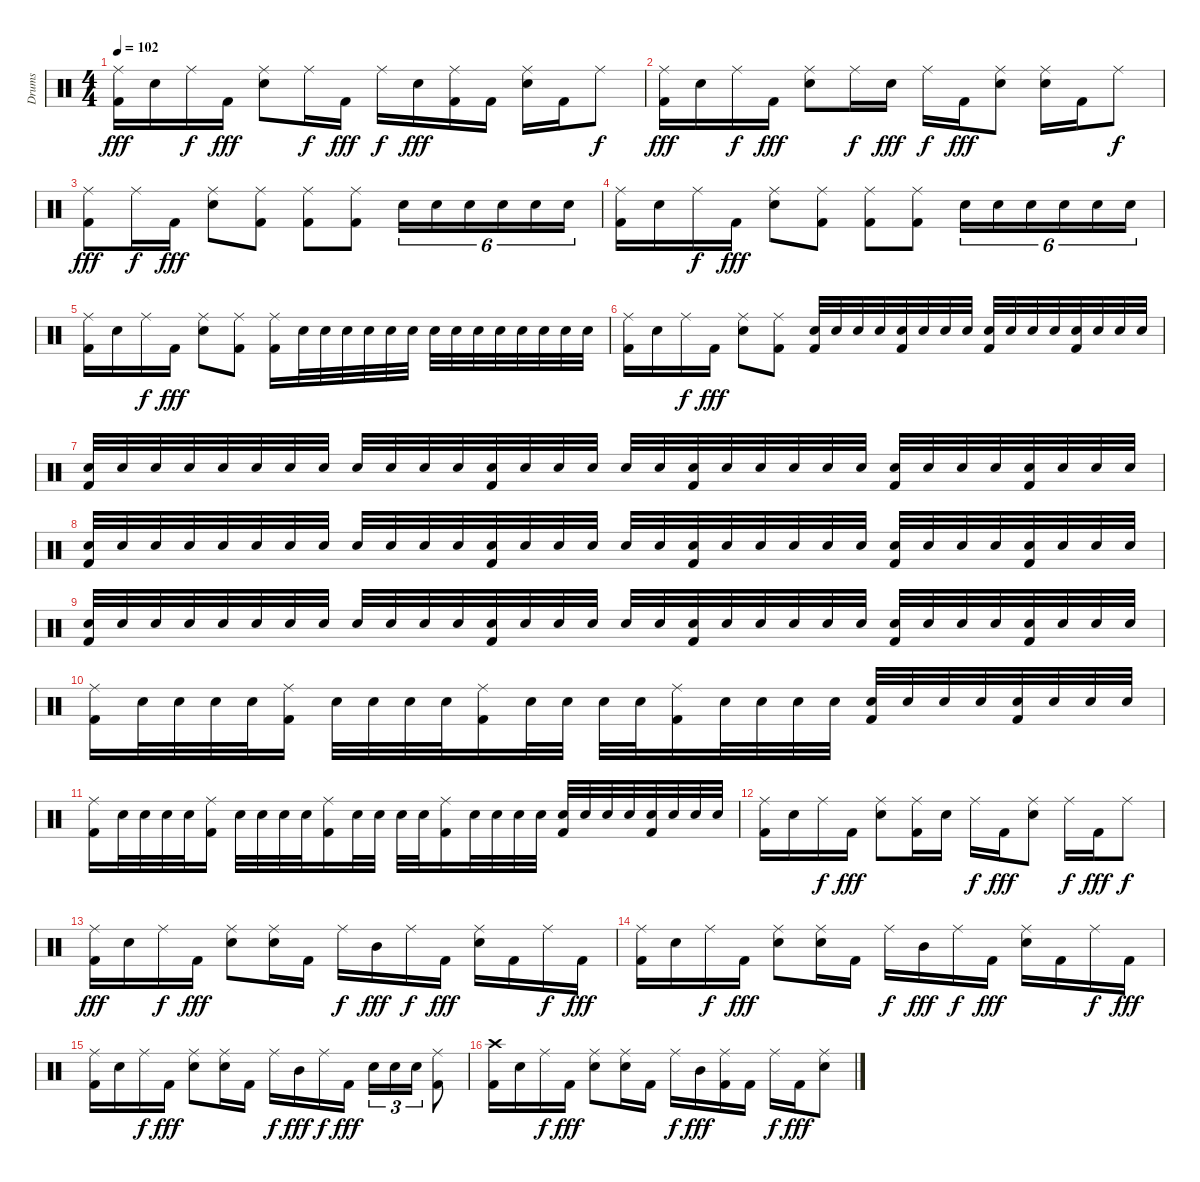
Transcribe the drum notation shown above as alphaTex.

\track ("Drums" "Drums") {instrument percussion}
\staff {score}
\articulation defaults
\ts (4 4)
\tempo 102
\clef neutral
\ks c
("Ride (middle)" "Kick (hit) 2").16{dy fff} "Electric Snare (hit)".16 "Ride (middle)".16{dy f} "Kick (hit) 2".16{dy fff} ("Ride (middle)" "Electric Snare (hit)").8 "Ride (middle)".16{dy f} "Kick (hit) 2".16{dy fff} "Ride (middle)".16{dy f} "Electric Snare (hit)".16{dy fff} ("Ride (middle)" "Kick (hit) 2").16 "Kick (hit) 2".16 ("Ride (middle)" "Electric Snare (hit)").16 "Kick (hit) 2".16 "Ride (middle)".8{dy f} |
("Ride (middle)" "Kick (hit) 2").16{dy fff} "Electric Snare (hit)".16 "Ride (middle)".16{dy f} "Kick (hit) 2".16{dy fff} ("Ride (middle)" "Electric Snare (hit)").8 "Ride (middle)".16{dy f} "Electric Snare (hit)".16{dy fff} "Ride (middle)".16{dy f} "Kick (hit) 2".16{dy fff} ("Ride (middle)" "Electric Snare (hit)").8 ("Ride (middle)" "Electric Snare (hit)").16 "Kick (hit) 2".16 "Ride (middle)".8{dy f} |
("Ride (middle)" "Kick (hit) 2").8{dy fff} "Ride (middle)".16{dy f} "Kick (hit) 2".16{dy fff} ("Ride (middle)" "Electric Snare (hit)").8 ("Ride (middle)" "Kick (hit) 2").8 ("Ride (middle)" "Kick (hit) 2").8 ("Ride (middle)" "Kick (hit) 2").8 "Electric Snare (hit)".16{tu (6 4)} "Electric Snare (hit)".16{tu (6 4)} "Electric Snare (hit)".16{tu (6 4)} "Electric Snare (hit)".16{tu (6 4)} "Electric Snare (hit)".16{tu (6 4)} "Electric Snare (hit)".16{tu (6 4)} |
("Ride (middle)" "Kick (hit) 2").16 "Electric Snare (hit)".16 "Ride (middle)".16{dy f} "Kick (hit) 2".16{dy fff} ("Ride (middle)" "Electric Snare (hit)").8 ("Ride (middle)" "Kick (hit) 2").8 ("Ride (middle)" "Kick (hit) 2").8 ("Ride (middle)" "Kick (hit) 2").8 "Electric Snare (hit)".16{tu (6 4)} "Electric Snare (hit)".16{tu (6 4)} "Electric Snare (hit)".16{tu (6 4)} "Electric Snare (hit)".16{tu (6 4)} "Electric Snare (hit)".16{tu (6 4)} "Electric Snare (hit)".16{tu (6 4)} |
("Ride (middle)" "Kick (hit) 2").16 "Electric Snare (hit)".16 "Ride (middle)".16{dy f} "Kick (hit) 2".16{dy fff} ("Ride (middle)" "Electric Snare (hit)").8 ("Ride (middle)" "Kick (hit) 2").8 ("Ride (middle)" "Kick (hit) 2").16 "Electric Snare (hit)".32 "Electric Snare (hit)".32 "Electric Snare (hit)".32 "Electric Snare (hit)".32 "Electric Snare (hit)".32 "Electric Snare (hit)".32 "Electric Snare (hit)".32 "Electric Snare (hit)".32 "Electric Snare (hit)".32 "Electric Snare (hit)".32 "Electric Snare (hit)".32 "Electric Snare (hit)".32 "Electric Snare (hit)".32 "Electric Snare (hit)".32 |
("Ride (middle)" "Kick (hit) 2").16 "Electric Snare (hit)".16 "Ride (middle)".16{dy f} "Kick (hit) 2".16{dy fff} ("Ride (middle)" "Electric Snare (hit)").8 ("Ride (middle)" "Kick (hit) 2").8 ("Electric Snare (hit)" "Kick (hit) 2").32 "Electric Snare (hit)".32 "Electric Snare (hit)".32 "Electric Snare (hit)".32 ("Electric Snare (hit)" "Kick (hit) 2").32 "Electric Snare (hit)".32 "Electric Snare (hit)".32 "Electric Snare (hit)".32 ("Electric Snare (hit)" "Kick (hit) 2").32 "Electric Snare (hit)".32 "Electric Snare (hit)".32 "Electric Snare (hit)".32 ("Electric Snare (hit)" "Kick (hit) 2").32 "Electric Snare (hit)".32 "Electric Snare (hit)".32 "Electric Snare (hit)".32 |
("Electric Snare (hit)" "Kick (hit) 2").32 "Electric Snare (hit)".32 "Electric Snare (hit)".32 "Electric Snare (hit)".32 "Electric Snare (hit)".32 "Electric Snare (hit)".32 "Electric Snare (hit)".32 "Electric Snare (hit)".32 "Electric Snare (hit)".32 "Electric Snare (hit)".32 "Electric Snare (hit)".32 "Electric Snare (hit)".32 ("Electric Snare (hit)" "Kick (hit) 2").32 "Electric Snare (hit)".32 "Electric Snare (hit)".32 "Electric Snare (hit)".32 "Electric Snare (hit)".32 "Electric Snare (hit)".32 ("Electric Snare (hit)" "Kick (hit) 2").32 "Electric Snare (hit)".32 "Electric Snare (hit)".32 "Electric Snare (hit)".32 "Electric Snare (hit)".32 "Electric Snare (hit)".32 ("Electric Snare (hit)" "Kick (hit) 2").32 "Electric Snare (hit)".32 "Electric Snare (hit)".32 "Electric Snare (hit)".32 ("Electric Snare (hit)" "Kick (hit) 2").32 "Electric Snare (hit)".32 "Electric Snare (hit)".32 "Electric Snare (hit)".32 |
("Electric Snare (hit)" "Kick (hit) 2").32 "Electric Snare (hit)".32 "Electric Snare (hit)".32 "Electric Snare (hit)".32 "Electric Snare (hit)".32 "Electric Snare (hit)".32 "Electric Snare (hit)".32 "Electric Snare (hit)".32 "Electric Snare (hit)".32 "Electric Snare (hit)".32 "Electric Snare (hit)".32 "Electric Snare (hit)".32 ("Electric Snare (hit)" "Kick (hit) 2").32 "Electric Snare (hit)".32 "Electric Snare (hit)".32 "Electric Snare (hit)".32 "Electric Snare (hit)".32 "Electric Snare (hit)".32 ("Electric Snare (hit)" "Kick (hit) 2").32 "Electric Snare (hit)".32 "Electric Snare (hit)".32 "Electric Snare (hit)".32 "Electric Snare (hit)".32 "Electric Snare (hit)".32 ("Electric Snare (hit)" "Kick (hit) 2").32 "Electric Snare (hit)".32 "Electric Snare (hit)".32 "Electric Snare (hit)".32 ("Electric Snare (hit)" "Kick (hit) 2").32 "Electric Snare (hit)".32 "Electric Snare (hit)".32 "Electric Snare (hit)".32 |
("Electric Snare (hit)" "Kick (hit) 2").32 "Electric Snare (hit)".32 "Electric Snare (hit)".32 "Electric Snare (hit)".32 "Electric Snare (hit)".32 "Electric Snare (hit)".32 "Electric Snare (hit)".32 "Electric Snare (hit)".32 "Electric Snare (hit)".32 "Electric Snare (hit)".32 "Electric Snare (hit)".32 "Electric Snare (hit)".32 ("Electric Snare (hit)" "Kick (hit) 2").32 "Electric Snare (hit)".32 "Electric Snare (hit)".32 "Electric Snare (hit)".32 "Electric Snare (hit)".32 "Electric Snare (hit)".32 ("Electric Snare (hit)" "Kick (hit) 2").32 "Electric Snare (hit)".32 "Electric Snare (hit)".32 "Electric Snare (hit)".32 "Electric Snare (hit)".32 "Electric Snare (hit)".32 ("Electric Snare (hit)" "Kick (hit) 2").32 "Electric Snare (hit)".32 "Electric Snare (hit)".32 "Electric Snare (hit)".32 ("Electric Snare (hit)" "Kick (hit) 2").32 "Electric Snare (hit)".32 "Electric Snare (hit)".32 "Electric Snare (hit)".32 |
("Ride (middle)" "Kick (hit) 2").16 "Electric Snare (hit)".32 "Electric Snare (hit)".32 "Electric Snare (hit)".32 "Electric Snare (hit)".32 ("Ride (middle)" "Kick (hit) 2").16 "Electric Snare (hit)".32 "Electric Snare (hit)".32 "Electric Snare (hit)".32 "Electric Snare (hit)".32 ("Ride (middle)" "Kick (hit) 2").16 "Electric Snare (hit)".32 "Electric Snare (hit)".32 "Electric Snare (hit)".32 "Electric Snare (hit)".32 ("Ride (middle)" "Kick (hit) 2").16 "Electric Snare (hit)".32 "Electric Snare (hit)".32 "Electric Snare (hit)".32 "Electric Snare (hit)".32 ("Electric Snare (hit)" "Kick (hit) 2").32 "Electric Snare (hit)".32 "Electric Snare (hit)".32 "Electric Snare (hit)".32 ("Electric Snare (hit)" "Kick (hit) 2").32 "Electric Snare (hit)".32 "Electric Snare (hit)".32 "Electric Snare (hit)".32 |
("Ride (middle)" "Kick (hit) 2").16 "Electric Snare (hit)".32 "Electric Snare (hit)".32 "Electric Snare (hit)".32 "Electric Snare (hit)".32 ("Ride (middle)" "Kick (hit) 2").16 "Electric Snare (hit)".32 "Electric Snare (hit)".32 "Electric Snare (hit)".32 "Electric Snare (hit)".32 ("Ride (middle)" "Kick (hit) 2").16 "Electric Snare (hit)".32 "Electric Snare (hit)".32 "Electric Snare (hit)".32 "Electric Snare (hit)".32 ("Ride (middle)" "Kick (hit) 2").16 "Electric Snare (hit)".32 "Electric Snare (hit)".32 "Electric Snare (hit)".32 "Electric Snare (hit)".32 ("Electric Snare (hit)" "Kick (hit) 2").32 "Electric Snare (hit)".32 "Electric Snare (hit)".32 "Electric Snare (hit)".32 ("Electric Snare (hit)" "Kick (hit) 2").32 "Electric Snare (hit)".32 "Electric Snare (hit)".32 "Electric Snare (hit)".32 |
("Ride (middle)" "Kick (hit) 2").16 "Electric Snare (hit)".16 "Ride (middle)".16{dy f} "Kick (hit) 2".16{dy fff} ("Ride (middle)" "Electric Snare (hit)").8 ("Ride (middle)" "Kick (hit) 2").16 "Electric Snare (hit)".16 "Ride (middle)".16{dy f} "Kick (hit) 2".16{dy fff} ("Ride (middle)" "Electric Snare (hit)").8 "Ride (middle)".16{dy f} "Kick (hit) 2".16{dy fff} "Ride (middle)".8{dy f} |
("Ride (middle)" "Kick (hit) 2").16{dy fff} "Electric Snare (hit)".16 "Ride (middle)".16{dy f} "Kick (hit) 2".16{dy fff} ("Ride (middle)" "Electric Snare (hit)").8 ("Ride (middle)" "Electric Snare (hit)").16 "Kick (hit) 2".16 "Ride (middle)".16{dy f} "Mid Tom (hit)".16{dy fff} "Ride (middle)".16{dy f} "Kick (hit) 2".16{dy fff} ("Ride (middle)" "Electric Snare (hit)").16 "Kick (hit) 2".16 "Ride (middle)".16{dy f} "Kick (hit) 2".16{dy fff} |
("Ride (middle)" "Kick (hit) 2").16 "Electric Snare (hit)".16 "Ride (middle)".16{dy f} "Kick (hit) 2".16{dy fff} ("Ride (middle)" "Electric Snare (hit)").8 ("Ride (middle)" "Electric Snare (hit)").16 "Kick (hit) 2".16 "Ride (middle)".16{dy f} "Mid Tom (hit)".16{dy fff} "Ride (middle)".16{dy f} "Kick (hit) 2".16{dy fff} ("Ride (middle)" "Electric Snare (hit)").16 "Kick (hit) 2".16 "Ride (middle)".16{dy f} "Kick (hit) 2".16{dy fff} |
("Ride (middle)" "Kick (hit) 2").16 "Electric Snare (hit)".16 "Ride (middle)".16{dy f} "Kick (hit) 2".16{dy fff} ("Ride (middle)" "Electric Snare (hit)").8 ("Ride (middle)" "Electric Snare (hit)").16 "Kick (hit) 2".16 "Ride (middle)".16{dy f} "Mid Tom (hit)".16{dy fff} "Ride (middle)".16{dy f} "Kick (hit) 2".16{dy fff} "Electric Snare (hit)".16{tu (3 2)} "Electric Snare (hit)".16{tu (3 2)} "Electric Snare (hit)".16{tu (3 2)} ("Ride (middle)" "Kick (hit) 2").8 |
("Crash high (hit)" "Kick (hit) 2").16 "Electric Snare (hit)".16 "Ride (middle)".16{dy f} "Kick (hit) 2".16{dy fff} ("Ride (middle)" "Electric Snare (hit)").8 ("Ride (middle)" "Electric Snare (hit)").16 "Kick (hit) 2".16 "Ride (middle)".16{dy f} "Mid Tom (hit)".16{dy fff} ("Ride (middle)" "Kick (hit) 2").16 "Kick (hit) 2".16 "Ride (middle)".16{dy f} "Kick (hit) 2".16{dy fff} ("Ride (middle)" "Electric Snare (hit)").8
